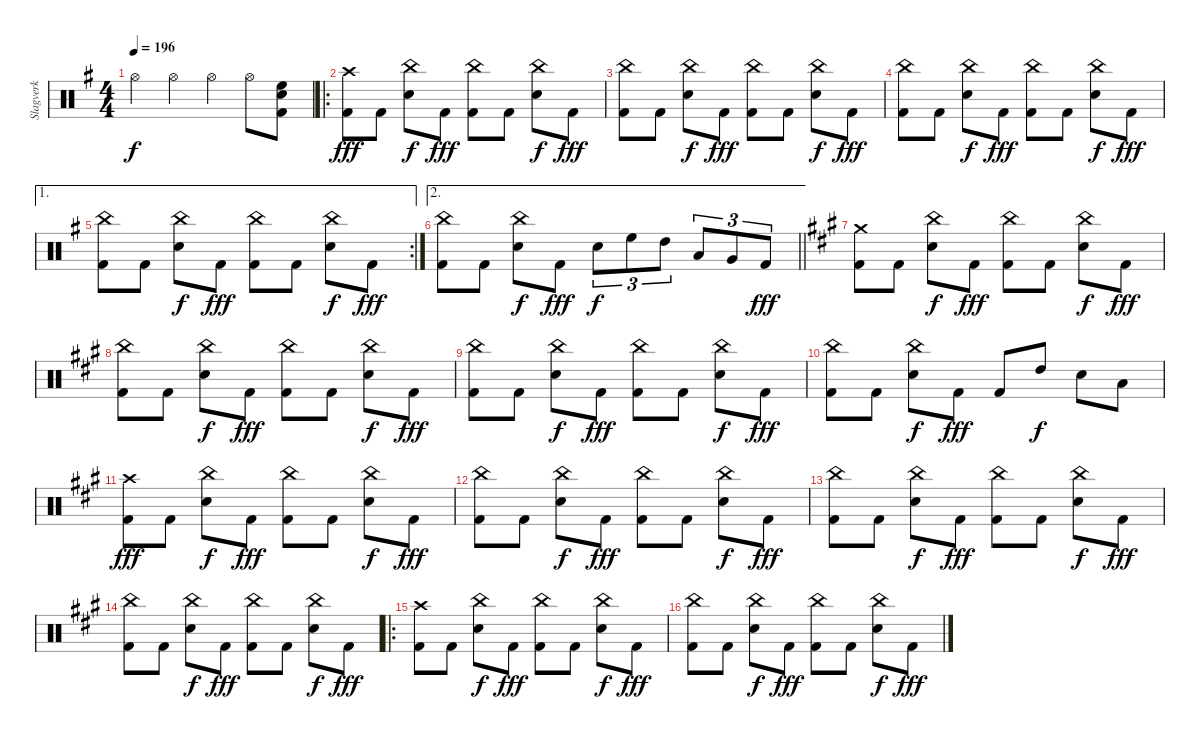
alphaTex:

\track ("Slagverk" "Slagverk") {instrument percussion}
\staff {score}
\articulation defaults
\ts (4 4)
\tempo 196
\clef neutral
\ks g "Hi-Hat (open)".4{dy f} "Hi-Hat (open)".4 "Hi-Hat (open)".4 "Hi-Hat (open)".8
("High Floor Tom (hit)" "Snare (hit) 2" "Kick (hit) 2").8 |
\ro
("Crash high (hit)" "Kick (hit) 2").8{dy fff} "Kick (hit) 2".8 ("China (hit)" "Snare (hit) 2").8{dy f} "Kick (hit) 2".8{dy fff} ("China (hit)" "Kick (hit) 2").8 "Kick (hit) 2".8 ("China (hit)" "Snare (hit) 2").8{dy f} "Kick (hit) 2".8{dy fff} |
("China (hit)" "Kick (hit) 2").8 "Kick (hit) 2".8 ("China (hit)" "Snare (hit) 2").8{dy f} "Kick (hit) 2".8{dy fff} ("China (hit)" "Kick (hit) 2").8 "Kick (hit) 2".8 ("China (hit)" "Snare (hit) 2").8{dy f} "Kick (hit) 2".8{dy fff} |
("China (hit)" "Kick (hit) 2").8 "Kick (hit) 2".8 ("China (hit)" "Snare (hit) 2").8{dy f} "Kick (hit) 2".8{dy fff} ("China (hit)" "Kick (hit) 2").8 "Kick (hit) 2".8 ("China (hit)" "Snare (hit) 2").8{dy f} "Kick (hit) 2".8{dy fff} |
\ae 1
\rc 2
("China (hit)" "Kick (hit) 2").8 "Kick (hit) 2".8 ("China (hit)" "Snare (hit) 2").8{dy f} "Kick (hit) 2".8{dy fff} ("China (hit)" "Kick (hit) 2").8 "Kick (hit) 2".8 ("China (hit)" "Snare (hit) 2").8{dy f} "Kick (hit) 2".8{dy fff} |
\ae 2
\barLineRight lightlight
("China (hit)" "Kick (hit) 2").8 "Kick (hit) 2".8 ("China (hit)" "Snare (hit) 2").8{dy f} "Kick (hit) 2".8{dy fff} "Snare (hit) 2".8{tu (3 2) dy f} "High Floor Tom (hit)".8{tu (3 2)} "High Tom (hit)".8{tu (3 2)} "Low Tom (hit)".8{tu (3 2)} "Very Low Tom (hit)".8{tu (3 2)} "Kick (hit) 2".8{tu (3 2) dy fff} |
\ks a
("Crash medium (hit)" "Kick (hit) 2").8 "Kick (hit) 2".8 ("China (hit)" "Snare (hit) 2").8{dy f} "Kick (hit) 2".8{dy fff} ("China (hit)" "Kick (hit) 2").8 "Kick (hit) 2".8 ("China (hit)" "Snare (hit) 2").8{dy f} "Kick (hit) 2".8{dy fff} |
("China (hit)" "Kick (hit) 2").8 "Kick (hit) 2".8 ("China (hit)" "Snare (hit) 2").8{dy f} "Kick (hit) 2".8{dy fff} ("China (hit)" "Kick (hit) 2").8 "Kick (hit) 2".8 ("China (hit)" "Snare (hit) 2").8{dy f} "Kick (hit) 2".8{dy fff} |
("China (hit)" "Kick (hit) 2").8 "Kick (hit) 2".8 ("China (hit)" "Snare (hit) 2").8{dy f} "Kick (hit) 2".8{dy fff} ("China (hit)" "Kick (hit) 2").8 "Kick (hit) 2".8 ("China (hit)" "Snare (hit) 2").8{dy f} "Kick (hit) 2".8{dy fff} |
("China (hit)" "Kick (hit) 2").8 "Kick (hit) 2".8 ("China (hit)" "Snare (hit) 2").8{dy f} "Kick (hit) 2".8{dy fff} "Kick (hit) 2".8 "High Tom (hit)".8{dy f} "Snare (hit) 2".8 "Low Tom (hit)".8 |
("Crash high (hit)" "Kick (hit) 2").8{dy fff} "Kick (hit) 2".8 ("China (hit)" "Snare (hit) 2").8{dy f} "Kick (hit) 2".8{dy fff} ("China (hit)" "Kick (hit) 2").8 "Kick (hit) 2".8 ("China (hit)" "Snare (hit) 2").8{dy f} "Kick (hit) 2".8{dy fff} |
("China (hit)" "Kick (hit) 2").8 "Kick (hit) 2".8 ("China (hit)" "Snare (hit) 2").8{dy f} "Kick (hit) 2".8{dy fff} ("China (hit)" "Kick (hit) 2").8 "Kick (hit) 2".8 ("China (hit)" "Snare (hit) 2").8{dy f} "Kick (hit) 2".8{dy fff} |
("China (hit)" "Kick (hit) 2").8 "Kick (hit) 2".8 ("China (hit)" "Snare (hit) 2").8{dy f} "Kick (hit) 2".8{dy fff} ("China (hit)" "Kick (hit) 2").8 "Kick (hit) 2".8 ("China (hit)" "Snare (hit) 2").8{dy f} "Kick (hit) 2".8{dy fff} |
("China (hit)" "Kick (hit) 2").8 "Kick (hit) 2".8 ("China (hit)" "Snare (hit) 2").8{dy f} "Kick (hit) 2".8{dy fff} ("China (hit)" "Kick (hit) 2").8 "Kick (hit) 2".8 ("China (hit)" "Snare (hit) 2").8{dy f} "Kick (hit) 2".8{dy fff} |
\ro
("Crash high (hit)" "Kick (hit) 2").8 "Kick (hit) 2".8 ("China (hit)" "Snare (hit) 2").8{dy f} "Kick (hit) 2".8{dy fff} ("China (hit)" "Kick (hit) 2").8 "Kick (hit) 2".8 ("China (hit)" "Snare (hit) 2").8{dy f} "Kick (hit) 2".8{dy fff} |
("China (hit)" "Kick (hit) 2").8 "Kick (hit) 2".8 ("China (hit)" "Snare (hit) 2").8{dy f} "Kick (hit) 2".8{dy fff} ("China (hit)" "Kick (hit) 2").8 "Kick (hit) 2".8 ("China (hit)" "Snare (hit) 2").8{dy f} "Kick (hit) 2".8{dy fff}
